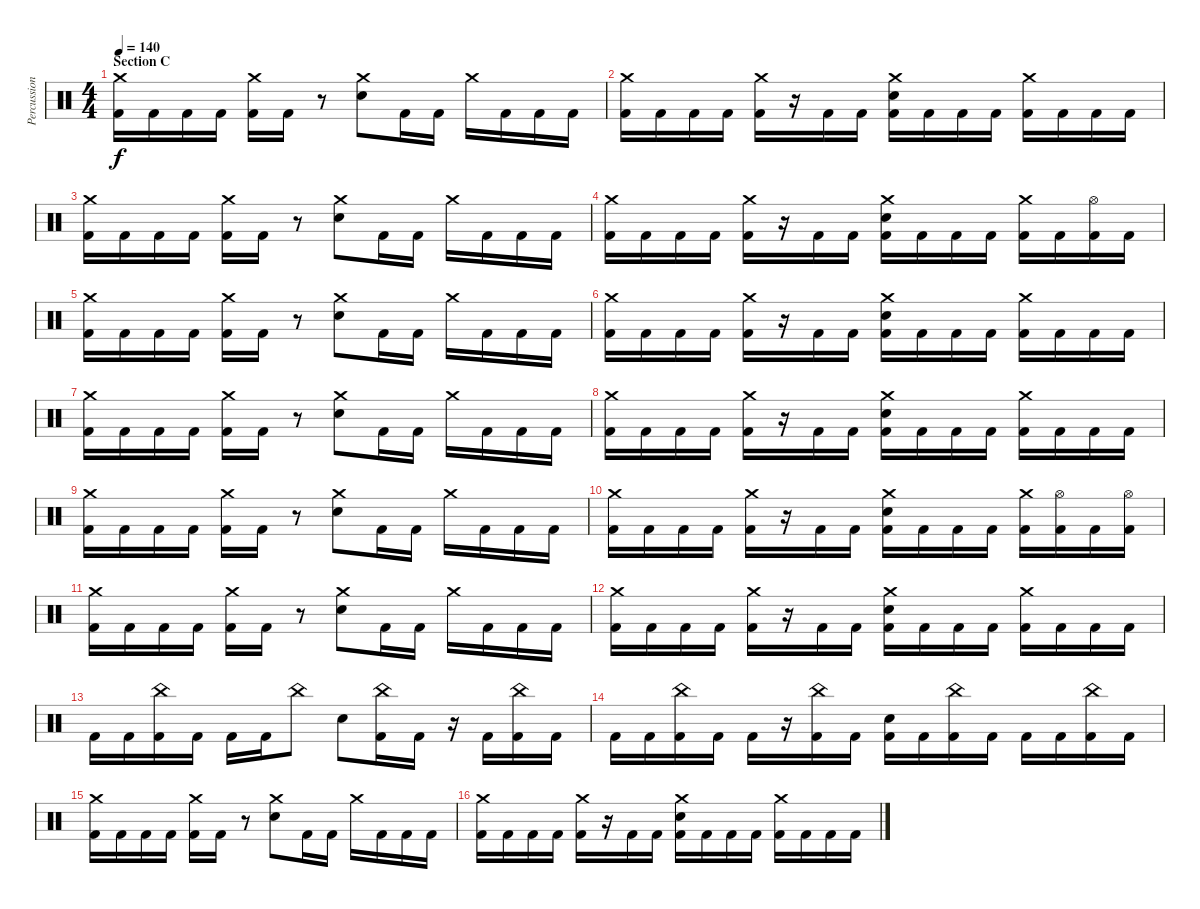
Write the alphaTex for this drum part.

\track ("Percussion" "Percussion") {instrument percussion}
\staff {score}
\articulation defaults
\ts (4 4)
\section ("" "Section C")
\tempo 140
\clef neutral
\ks c
("Crash medium (hit)" "Kick (hit) 2").16{dy f} "Kick (hit) 2".16 "Kick (hit) 2".16 "Kick (hit) 2".16 ("Crash medium (hit)" "Kick (hit) 2").16 "Kick (hit) 2".16 r.8 ("Crash medium (hit)" "Electric Snare (hit)").8 "Kick (hit) 2".16 "Kick (hit) 2".16 "Crash medium (hit)".16 "Kick (hit) 2".16 "Kick (hit) 2".16 "Kick (hit) 2".16 |
("Crash medium (hit)" "Kick (hit) 2").16 "Kick (hit) 2".16 "Kick (hit) 2".16 "Kick (hit) 2".16 ("Crash medium (hit)" "Kick (hit) 2").16 r.16 "Kick (hit) 2".16 "Kick (hit) 2".16 ("Crash medium (hit)" "Electric Snare (hit)" "Kick (hit) 2").16 "Kick (hit) 2".16 "Kick (hit) 2".16 "Kick (hit) 2".16 ("Crash medium (hit)" "Kick (hit) 2").16 "Kick (hit) 2".16 "Kick (hit) 2".16 "Kick (hit) 2".16 |
("Crash medium (hit)" "Kick (hit) 2").16 "Kick (hit) 2".16 "Kick (hit) 2".16 "Kick (hit) 2".16 ("Crash medium (hit)" "Kick (hit) 2").16 "Kick (hit) 2".16 r.8 ("Crash medium (hit)" "Electric Snare (hit)").8 "Kick (hit) 2".16 "Kick (hit) 2".16 "Crash medium (hit)".16 "Kick (hit) 2".16 "Kick (hit) 2".16 "Kick (hit) 2".16 |
("Crash medium (hit)" "Kick (hit) 2").16 "Kick (hit) 2".16 "Kick (hit) 2".16 "Kick (hit) 2".16 ("Crash medium (hit)" "Kick (hit) 2").16 r.16 "Kick (hit) 2".16 "Kick (hit) 2".16 ("Crash medium (hit)" "Electric Snare (hit)" "Kick (hit) 2").16 "Kick (hit) 2".16 "Kick (hit) 2".16 "Kick (hit) 2".16 ("Crash medium (hit)" "Kick (hit) 2").16 "Kick (hit) 2".16 ("Hi-Hat (open)" "Kick (hit) 2").16 "Kick (hit) 2".16 |
("Crash medium (hit)" "Kick (hit) 2").16 "Kick (hit) 2".16 "Kick (hit) 2".16 "Kick (hit) 2".16 ("Crash medium (hit)" "Kick (hit) 2").16 "Kick (hit) 2".16 r.8 ("Crash medium (hit)" "Electric Snare (hit)").8 "Kick (hit) 2".16 "Kick (hit) 2".16 "Crash medium (hit)".16 "Kick (hit) 2".16 "Kick (hit) 2".16 "Kick (hit) 2".16 |
("Crash medium (hit)" "Kick (hit) 2").16 "Kick (hit) 2".16 "Kick (hit) 2".16 "Kick (hit) 2".16 ("Crash medium (hit)" "Kick (hit) 2").16 r.16 "Kick (hit) 2".16 "Kick (hit) 2".16 ("Crash medium (hit)" "Electric Snare (hit)" "Kick (hit) 2").16 "Kick (hit) 2".16 "Kick (hit) 2".16 "Kick (hit) 2".16 ("Crash medium (hit)" "Kick (hit) 2").16 "Kick (hit) 2".16 "Kick (hit) 2".16 "Kick (hit) 2".16 |
("Crash medium (hit)" "Kick (hit) 2").16 "Kick (hit) 2".16 "Kick (hit) 2".16 "Kick (hit) 2".16 ("Crash medium (hit)" "Kick (hit) 2").16 "Kick (hit) 2".16 r.8 ("Crash medium (hit)" "Electric Snare (hit)").8 "Kick (hit) 2".16 "Kick (hit) 2".16 "Crash medium (hit)".16 "Kick (hit) 2".16 "Kick (hit) 2".16 "Kick (hit) 2".16 |
("Crash medium (hit)" "Kick (hit) 2").16 "Kick (hit) 2".16 "Kick (hit) 2".16 "Kick (hit) 2".16 ("Crash medium (hit)" "Kick (hit) 2").16 r.16 "Kick (hit) 2".16 "Kick (hit) 2".16 ("Crash medium (hit)" "Electric Snare (hit)" "Kick (hit) 2").16 "Kick (hit) 2".16 "Kick (hit) 2".16 "Kick (hit) 2".16 ("Crash medium (hit)" "Kick (hit) 2").16 "Kick (hit) 2".16 "Kick (hit) 2".16 "Kick (hit) 2".16 |
("Crash medium (hit)" "Kick (hit) 2").16 "Kick (hit) 2".16 "Kick (hit) 2".16 "Kick (hit) 2".16 ("Crash medium (hit)" "Kick (hit) 2").16 "Kick (hit) 2".16 r.8 ("Crash medium (hit)" "Electric Snare (hit)").8 "Kick (hit) 2".16 "Kick (hit) 2".16 "Crash medium (hit)".16 "Kick (hit) 2".16 "Kick (hit) 2".16 "Kick (hit) 2".16 |
("Crash medium (hit)" "Kick (hit) 2").16 "Kick (hit) 2".16 "Kick (hit) 2".16 "Kick (hit) 2".16 ("Crash medium (hit)" "Kick (hit) 2").16 r.16 "Kick (hit) 2".16 "Kick (hit) 2".16 ("Crash medium (hit)" "Electric Snare (hit)" "Kick (hit) 2").16 "Kick (hit) 2".16 "Kick (hit) 2".16 "Kick (hit) 2".16 ("Crash medium (hit)" "Kick (hit) 2").16 ("Hi-Hat (open)" "Kick (hit) 2").16 "Kick (hit) 2".16 ("Hi-Hat (open)" "Kick (hit) 2").16 |
("Crash medium (hit)" "Kick (hit) 2").16 "Kick (hit) 2".16 "Kick (hit) 2".16 "Kick (hit) 2".16 ("Crash medium (hit)" "Kick (hit) 2").16 "Kick (hit) 2".16 r.8 ("Crash medium (hit)" "Electric Snare (hit)").8 "Kick (hit) 2".16 "Kick (hit) 2".16 "Crash medium (hit)".16 "Kick (hit) 2".16 "Kick (hit) 2".16 "Kick (hit) 2".16 |
("Crash medium (hit)" "Kick (hit) 2").16 "Kick (hit) 2".16 "Kick (hit) 2".16 "Kick (hit) 2".16 ("Crash medium (hit)" "Kick (hit) 2").16 r.16 "Kick (hit) 2".16 "Kick (hit) 2".16 ("Crash medium (hit)" "Electric Snare (hit)" "Kick (hit) 2").16 "Kick (hit) 2".16 "Kick (hit) 2".16 "Kick (hit) 2".16 ("Crash medium (hit)" "Kick (hit) 2").16 "Kick (hit) 2".16 "Kick (hit) 2".16 "Kick (hit) 2".16 |
"Kick (hit) 2".16 "Kick (hit) 2".16 ("China (hit)" "Kick (hit) 2").16 "Kick (hit) 2".16 "Kick (hit) 2".16 "Kick (hit) 2".16 "China (hit)".8 "Electric Snare (hit)".8 ("China (hit)" "Kick (hit) 2").16 "Kick (hit) 2".16 r.16 "Kick (hit) 2".16 ("China (hit)" "Kick (hit) 2").16 "Kick (hit) 2".16 |
"Kick (hit) 2".16 "Kick (hit) 2".16 ("China (hit)" "Kick (hit) 2").16 "Kick (hit) 2".16 "Kick (hit) 2".16 r.16 ("China (hit)" "Kick (hit) 2").16 "Kick (hit) 2".16 ("Electric Snare (hit)" "Kick (hit) 2").16 "Kick (hit) 2".16 ("China (hit)" "Kick (hit) 2").16 "Kick (hit) 2".16 "Kick (hit) 2".16 "Kick (hit) 2".16 ("China (hit)" "Kick (hit) 2").16 "Kick (hit) 2".16 |
("Crash medium (hit)" "Kick (hit) 2").16 "Kick (hit) 2".16 "Kick (hit) 2".16 "Kick (hit) 2".16 ("Crash medium (hit)" "Kick (hit) 2").16 "Kick (hit) 2".16 r.8 ("Crash medium (hit)" "Electric Snare (hit)").8 "Kick (hit) 2".16 "Kick (hit) 2".16 "Crash medium (hit)".16 "Kick (hit) 2".16 "Kick (hit) 2".16 "Kick (hit) 2".16 |
("Crash medium (hit)" "Kick (hit) 2").16 "Kick (hit) 2".16 "Kick (hit) 2".16 "Kick (hit) 2".16 ("Crash medium (hit)" "Kick (hit) 2").16 r.16 "Kick (hit) 2".16 "Kick (hit) 2".16 ("Crash medium (hit)" "Electric Snare (hit)" "Kick (hit) 2").16 "Kick (hit) 2".16 "Kick (hit) 2".16 "Kick (hit) 2".16 ("Crash medium (hit)" "Kick (hit) 2").16 "Kick (hit) 2".16 "Kick (hit) 2".16 "Kick (hit) 2".16
